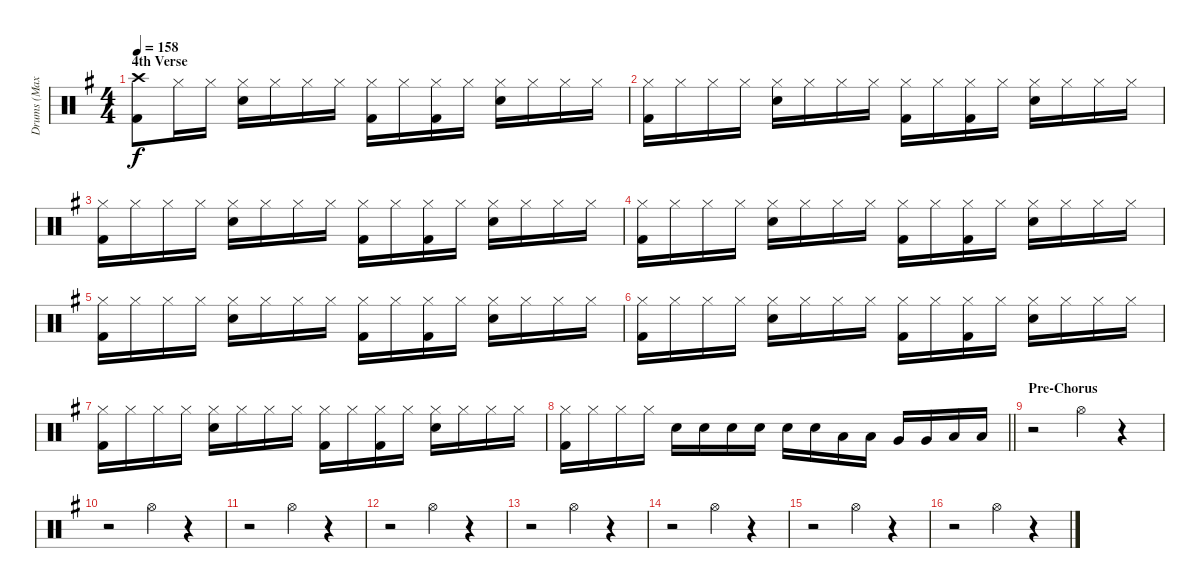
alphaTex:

\track ("Drums (Max)" "Drums (Max") {instrument percussion}
\staff {score}
\articulation defaults
\ts (4 4)
\section ("" "4th Verse")
\tempo 158
\clef neutral
\ks g
("Crash high (hit)" "Kick (hit) 2").8{dy f} "Hi-Hat (closed)".16 "Hi-Hat (closed)".16 ("Hi-Hat (closed)" "Snare (hit) 2").16 "Hi-Hat (closed)".16 "Hi-Hat (closed)".16 "Hi-Hat (closed)".16 ("Hi-Hat (closed)" "Kick (hit) 2").16 "Hi-Hat (closed)".16 ("Hi-Hat (closed)" "Kick (hit) 2").16 "Hi-Hat (closed)".16 ("Hi-Hat (closed)" "Snare (hit) 2").16 "Hi-Hat (closed)".16 "Hi-Hat (closed)".16 "Hi-Hat (closed)".16 |
("Hi-Hat (closed)" "Kick (hit) 2").16 "Hi-Hat (closed)".16 "Hi-Hat (closed)".16 "Hi-Hat (closed)".16 ("Hi-Hat (closed)" "Snare (hit) 2").16 "Hi-Hat (closed)".16 "Hi-Hat (closed)".16 "Hi-Hat (closed)".16 ("Hi-Hat (closed)" "Kick (hit) 2").16 "Hi-Hat (closed)".16 ("Hi-Hat (closed)" "Kick (hit) 2").16 "Hi-Hat (closed)".16 ("Hi-Hat (closed)" "Snare (hit) 2").16 "Hi-Hat (closed)".16 "Hi-Hat (closed)".16 "Hi-Hat (closed)".16 |
("Hi-Hat (closed)" "Kick (hit) 2").16 "Hi-Hat (closed)".16 "Hi-Hat (closed)".16 "Hi-Hat (closed)".16 ("Hi-Hat (closed)" "Snare (hit) 2").16 "Hi-Hat (closed)".16 "Hi-Hat (closed)".16 "Hi-Hat (closed)".16 ("Hi-Hat (closed)" "Kick (hit) 2").16 "Hi-Hat (closed)".16 ("Hi-Hat (closed)" "Kick (hit) 2").16 "Hi-Hat (closed)".16 ("Hi-Hat (closed)" "Snare (hit) 2").16 "Hi-Hat (closed)".16 "Hi-Hat (closed)".16 "Hi-Hat (closed)".16 |
("Hi-Hat (closed)" "Kick (hit) 2").16 "Hi-Hat (closed)".16 "Hi-Hat (closed)".16 "Hi-Hat (closed)".16 ("Hi-Hat (closed)" "Snare (hit) 2").16 "Hi-Hat (closed)".16 "Hi-Hat (closed)".16 "Hi-Hat (closed)".16 ("Hi-Hat (closed)" "Kick (hit) 2").16 "Hi-Hat (closed)".16 ("Hi-Hat (closed)" "Kick (hit) 2").16 "Hi-Hat (closed)".16 ("Hi-Hat (closed)" "Snare (hit) 2").16 "Hi-Hat (closed)".16 "Hi-Hat (closed)".16 "Hi-Hat (closed)".16 |
("Hi-Hat (closed)" "Kick (hit) 2").16 "Hi-Hat (closed)".16 "Hi-Hat (closed)".16 "Hi-Hat (closed)".16 ("Hi-Hat (closed)" "Snare (hit) 2").16 "Hi-Hat (closed)".16 "Hi-Hat (closed)".16 "Hi-Hat (closed)".16 ("Hi-Hat (closed)" "Kick (hit) 2").16 "Hi-Hat (closed)".16 ("Hi-Hat (closed)" "Kick (hit) 2").16 "Hi-Hat (closed)".16 ("Hi-Hat (closed)" "Snare (hit) 2").16 "Hi-Hat (closed)".16 "Hi-Hat (closed)".16 "Hi-Hat (closed)".16 |
("Hi-Hat (closed)" "Kick (hit) 2").16 "Hi-Hat (closed)".16 "Hi-Hat (closed)".16 "Hi-Hat (closed)".16 ("Hi-Hat (closed)" "Snare (hit) 2").16 "Hi-Hat (closed)".16 "Hi-Hat (closed)".16 "Hi-Hat (closed)".16 ("Hi-Hat (closed)" "Kick (hit) 2").16 "Hi-Hat (closed)".16 ("Hi-Hat (closed)" "Kick (hit) 2").16 "Hi-Hat (closed)".16 ("Hi-Hat (closed)" "Snare (hit) 2").16 "Hi-Hat (closed)".16 "Hi-Hat (closed)".16 "Hi-Hat (closed)".16 |
("Hi-Hat (closed)" "Kick (hit) 2").16 "Hi-Hat (closed)".16 "Hi-Hat (closed)".16 "Hi-Hat (closed)".16 ("Hi-Hat (closed)" "Snare (hit) 2").16 "Hi-Hat (closed)".16 "Hi-Hat (closed)".16 "Hi-Hat (closed)".16 ("Hi-Hat (closed)" "Kick (hit) 2").16 "Hi-Hat (closed)".16 ("Hi-Hat (closed)" "Kick (hit) 2").16 "Hi-Hat (closed)".16 ("Hi-Hat (closed)" "Snare (hit) 2").16 "Hi-Hat (closed)".16 "Hi-Hat (closed)".16 "Hi-Hat (closed)".16 |
\barLineRight lightlight
("Hi-Hat (closed)" "Kick (hit) 2").16 "Hi-Hat (closed)".16 "Hi-Hat (closed)".16 "Hi-Hat (closed)".16 "Snare (hit) 2".16 "Snare (hit) 2".16 "Snare (hit) 2".16 "Snare (hit) 2".16 "Snare (hit) 2".16 "Snare (hit) 2".16 "Low Tom (hit)".16 "Low Tom (hit)".16 "Very Low Tom (hit)".16 "Very Low Tom (hit)".16 "Low Floor Tom (hit)".16 "Low Floor Tom (hit)".16 |
\section ("" "Pre-Chorus")
r.2 "Hi-Hat (open)".4 r.4 |
r.2 "Hi-Hat (open)".4 r.4 |
r.2 "Hi-Hat (open)".4 r.4 |
r.2 "Hi-Hat (open)".4 r.4 |
r.2 "Hi-Hat (open)".4 r.4 |
r.2 "Hi-Hat (open)".4 r.4 |
r.2 "Hi-Hat (open)".4 r.4 |
r.2 "Hi-Hat (open)".4 r.4
